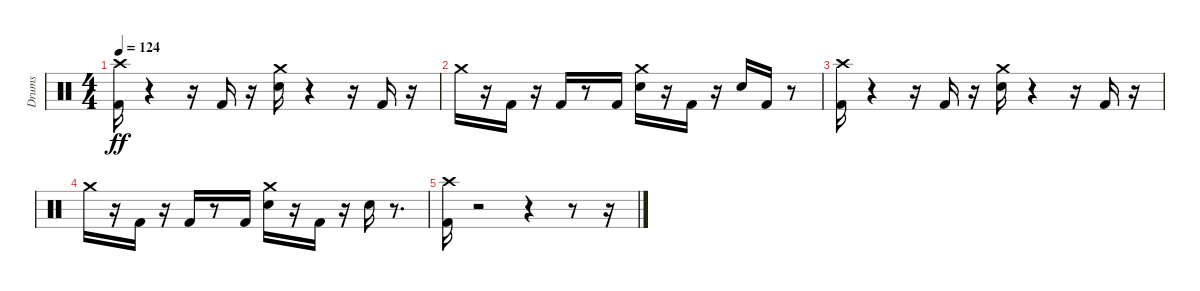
\track ("Drums" "Drums") {instrument percussion}
\staff {score}
\articulation defaults
\ts (4 4)
\tempo 124
\clef neutral
\ks c
("Crash high (hit)" "Kick (hit) 2").16{dy ff} r.4 r.16 "Kick (hit) 2".16 r.16 ("Crash medium (hit)" "Electric Snare (hit)").16 r.4 r.16 "Kick (hit) 2".16 r.16 |
"Crash medium (hit)".16 r.16 "Kick (hit) 2".16 r.16 "Kick (hit) 2".16 r.8 "Kick (hit) 2".16 ("Crash medium (hit)" "Electric Snare (hit)").16 r.16 "Kick (hit) 2".16 r.16 "Electric Snare (hit)".16 "Kick (hit) 2".16 r.8 |
("Crash high (hit)" "Kick (hit) 2").16 r.4 r.16 "Kick (hit) 2".16 r.16 ("Crash medium (hit)" "Electric Snare (hit)").16 r.4 r.16 "Kick (hit) 2".16 r.16 |
"Crash medium (hit)".16 r.16 "Kick (hit) 2".16 r.16 "Kick (hit) 2".16 r.8 "Kick (hit) 2".16 ("Crash medium (hit)" "Electric Snare (hit)").16 r.16 "Kick (hit) 2".16 r.16 "Electric Snare (hit)".16 r.8{d} |
("Kick (hit) 2" "Crash high (hit)").16 r.2 r.4 r.8 r.16
